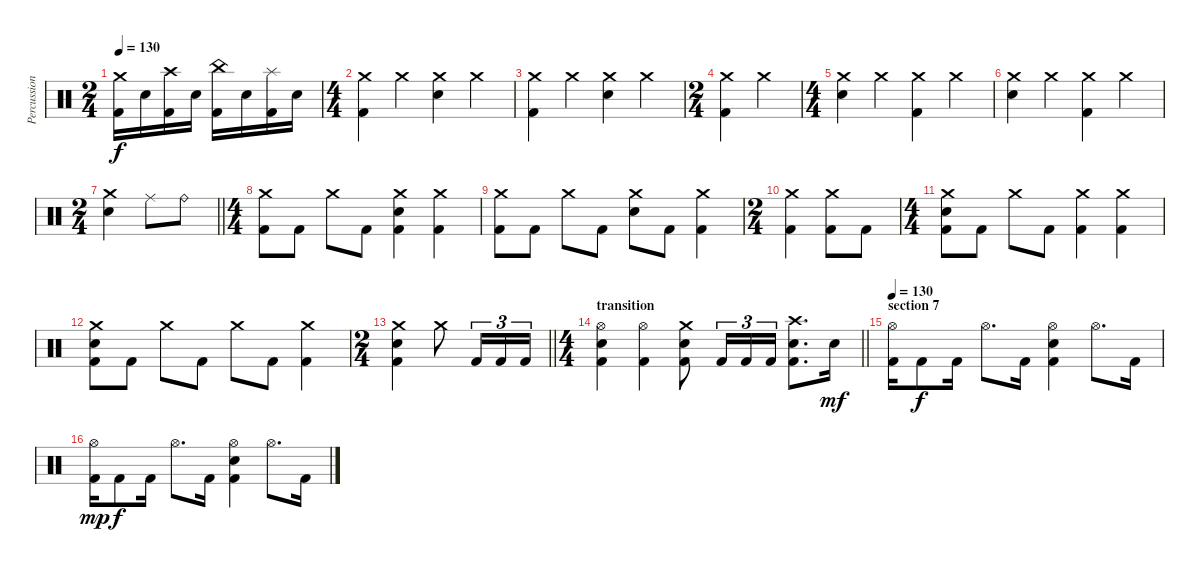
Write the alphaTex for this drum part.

\track ("Percussion" "Percussion") {instrument percussion}
\staff {score}
\articulation defaults
\ts (2 4)
\tempo 130
\clef neutral
\ks c
("Crash medium (hit)" "Kick (hit) 2").16{dy f} "Electric Snare (hit)".16 ("Crash high (hit)" "Kick (hit) 2").16 "Electric Snare (hit)".16 ("China (hit)" "Kick (hit) 2").16 "Electric Snare (hit)".16 ("Splash (hit)" "Kick (hit) 2").16 "Electric Snare (hit)".16 |
\ts (4 4)
("Crash medium (hit)" "Kick (hit) 2").4 "Crash medium (hit)".4 ("Crash medium (hit)" "Electric Snare (hit)").4 "Crash medium (hit)".4 |
("Crash medium (hit)" "Kick (hit) 2").4 "Crash medium (hit)".4 ("Crash medium (hit)" "Electric Snare (hit)").4 "Crash medium (hit)".4 |
\ts (2 4)
("Crash medium (hit)" "Kick (hit) 2").4 "Crash medium (hit)".4 |
\ts (4 4)
("Crash medium (hit)" "Electric Snare (hit)").4 "Crash medium (hit)".4 ("Crash medium (hit)" "Kick (hit) 2").4 "Crash medium (hit)".4 |
("Crash medium (hit)" "Electric Snare (hit)").4 "Crash medium (hit)".4 ("Crash medium (hit)" "Kick (hit) 2").4 "Crash medium (hit)".4 |
\ts (2 4)
\barLineRight lightlight
("Crash medium (hit)" "Electric Snare (hit)").4 "Ride (middle)".8 "Ride (bell)".8 |
\ts (4 4)
("Crash medium (hit)" "Kick (hit) 2").8 "Kick (hit) 2".8 "Crash medium (hit)".8 "Kick (hit) 2".8 ("Crash medium (hit)" "Electric Snare (hit)" "Kick (hit) 2").4 ("Crash medium (hit)" "Kick (hit) 2").4 |
("Crash medium (hit)" "Kick (hit) 2").8 "Kick (hit) 2".8 "Crash medium (hit)".8 "Kick (hit) 2".8 ("Crash medium (hit)" "Electric Snare (hit)").8 "Kick (hit) 2".8 ("Crash medium (hit)" "Kick (hit) 2").4 |
\ts (2 4)
("Crash medium (hit)" "Kick (hit) 2").4 ("Crash medium (hit)" "Kick (hit) 2").8 "Kick (hit) 2".8 |
\ts (4 4)
("Crash medium (hit)" "Electric Snare (hit)" "Kick (hit) 2").8 "Kick (hit) 2".8 "Crash medium (hit)".8 "Kick (hit) 2".8 ("Crash medium (hit)" "Kick (hit) 2").4 ("Crash medium (hit)" "Kick (hit) 2").4 |
("Crash medium (hit)" "Electric Snare (hit)" "Kick (hit) 2").8 "Kick (hit) 2".8 "Crash medium (hit)".8 "Kick (hit) 2".8 "Crash medium (hit)".8 "Kick (hit) 2".8 ("Crash medium (hit)" "Kick (hit) 2").4 |
\ts (2 4)
\barLineRight lightlight
("Crash medium (hit)" "Electric Snare (hit)" "Kick (hit) 2").4 "Crash medium (hit)".8 "Kick (hit) 2".16{tu (3 2)} "Kick (hit) 2".16{tu (3 2)} "Kick (hit) 2".16{tu (3 2)} |
\ts (4 4)
\section ("" "transition")
\barLineRight lightlight
("Hi-Hat (open)" "Electric Snare (hit)" "Kick (hit) 2").4 ("Hi-Hat (open)" "Kick (hit) 2").4 ("Crash medium (hit)" "Electric Snare (hit)" "Kick (hit) 2").8 "Kick (hit) 2".16{tu (3 2)} "Kick (hit) 2".16{tu (3 2)} "Kick (hit) 2".16{tu (3 2)} ("Crash high (hit)" "Electric Snare (hit)" "Kick (hit) 2").8{d} "Electric Snare (hit)".16{dy mf} |
\section ("" "section 7")
\tempo 130
("Hi-Hat (open)" "Kick (hit) 2").16 "Kick (hit) 2".8{dy f} "Kick (hit) 2".16 "Hi-Hat (open)".8{d} "Kick (hit) 2".16 ("Hi-Hat (open)" "Electric Snare (hit)" "Kick (hit) 2").4 "Hi-Hat (open)".8{d} "Kick (hit) 2".16 |
("Hi-Hat (open)" "Kick (hit) 2").16{dy mp} "Kick (hit) 2".8{dy f} "Kick (hit) 2".16 "Hi-Hat (open)".8{d} "Kick (hit) 2".16 ("Hi-Hat (open)" "Electric Snare (hit)" "Kick (hit) 2").4 "Hi-Hat (open)".8{d} "Kick (hit) 2".16
